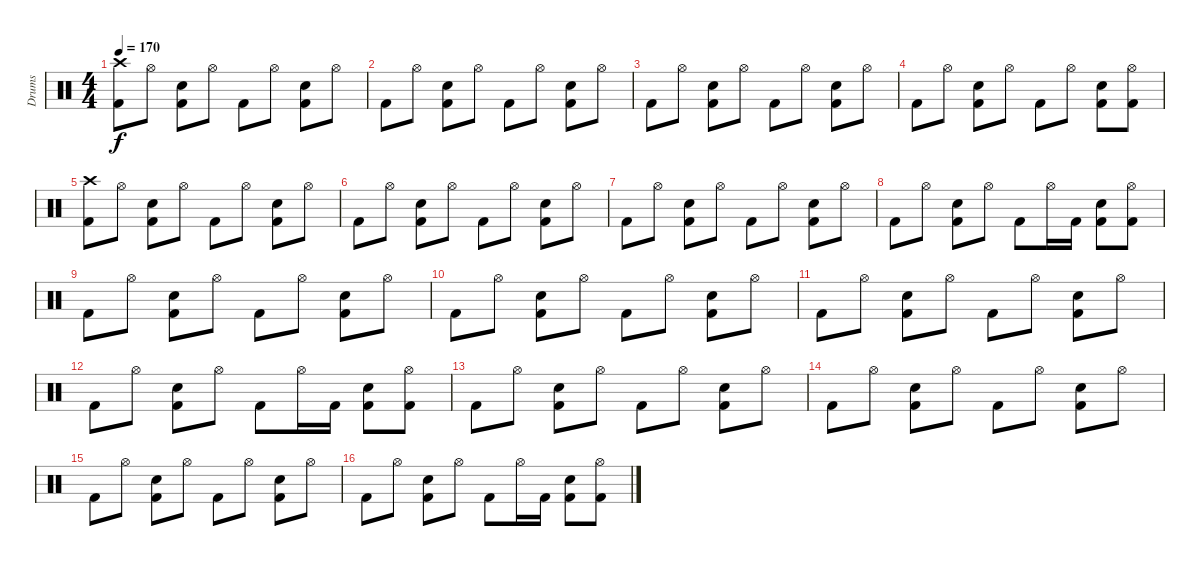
\track ("Drums" "Drums") {instrument percussion}
\staff {score}
\articulation defaults
\ts (4 4)
\tempo 170
\clef neutral
\ks c
("Crash high (hit)" "Kick (hit) 2").8{dy f} "Hi-Hat (open)".8 ("Snare (hit) 2" "Kick (hit) 2").8 "Hi-Hat (open)".8 "Kick (hit) 2".8 "Hi-Hat (open)".8 ("Snare (hit) 2" "Kick (hit) 2").8 "Hi-Hat (open)".8 |
"Kick (hit) 2".8 "Hi-Hat (open)".8 ("Snare (hit) 2" "Kick (hit) 2").8 "Hi-Hat (open)".8 "Kick (hit) 2".8 "Hi-Hat (open)".8 ("Snare (hit) 2" "Kick (hit) 2").8 "Hi-Hat (open)".8 |
"Kick (hit) 2".8 "Hi-Hat (open)".8 ("Snare (hit) 2" "Kick (hit) 2").8 "Hi-Hat (open)".8 "Kick (hit) 2".8 "Hi-Hat (open)".8 ("Snare (hit) 2" "Kick (hit) 2").8 "Hi-Hat (open)".8 |
"Kick (hit) 2".8 "Hi-Hat (open)".8 ("Snare (hit) 2" "Kick (hit) 2").8 "Hi-Hat (open)".8 "Kick (hit) 2".8 "Hi-Hat (open)".8 ("Snare (hit) 2" "Kick (hit) 2").8 ("Hi-Hat (open)" "Kick (hit) 2").8 |
("Crash high (hit)" "Kick (hit) 2").8 "Hi-Hat (open)".8 ("Snare (hit) 2" "Kick (hit) 2").8 "Hi-Hat (open)".8 "Kick (hit) 2".8 "Hi-Hat (open)".8 ("Snare (hit) 2" "Kick (hit) 2").8 "Hi-Hat (open)".8 |
"Kick (hit) 2".8 "Hi-Hat (open)".8 ("Snare (hit) 2" "Kick (hit) 2").8 "Hi-Hat (open)".8 "Kick (hit) 2".8 "Hi-Hat (open)".8 ("Snare (hit) 2" "Kick (hit) 2").8 "Hi-Hat (open)".8 |
"Kick (hit) 2".8 "Hi-Hat (open)".8 ("Snare (hit) 2" "Kick (hit) 2").8 "Hi-Hat (open)".8 "Kick (hit) 2".8 "Hi-Hat (open)".8 ("Snare (hit) 2" "Kick (hit) 2").8 "Hi-Hat (open)".8 |
"Kick (hit) 2".8 "Hi-Hat (open)".8 ("Snare (hit) 2" "Kick (hit) 2").8 "Hi-Hat (open)".8 "Kick (hit) 2".8 "Hi-Hat (open)".16 "Kick (hit) 2".16 ("Snare (hit) 2" "Kick (hit) 2").8 ("Hi-Hat (open)" "Kick (hit) 2").8 |
"Kick (hit) 2".8 "Hi-Hat (open)".8 ("Snare (hit) 2" "Kick (hit) 2").8 "Hi-Hat (open)".8 "Kick (hit) 2".8 "Hi-Hat (open)".8 ("Snare (hit) 2" "Kick (hit) 2").8 "Hi-Hat (open)".8 |
"Kick (hit) 2".8 "Hi-Hat (open)".8 ("Snare (hit) 2" "Kick (hit) 2").8 "Hi-Hat (open)".8 "Kick (hit) 2".8 "Hi-Hat (open)".8 ("Snare (hit) 2" "Kick (hit) 2").8 "Hi-Hat (open)".8 |
"Kick (hit) 2".8 "Hi-Hat (open)".8 ("Snare (hit) 2" "Kick (hit) 2").8 "Hi-Hat (open)".8 "Kick (hit) 2".8 "Hi-Hat (open)".8 ("Snare (hit) 2" "Kick (hit) 2").8 "Hi-Hat (open)".8 |
"Kick (hit) 2".8 "Hi-Hat (open)".8 ("Snare (hit) 2" "Kick (hit) 2").8 "Hi-Hat (open)".8 "Kick (hit) 2".8 "Hi-Hat (open)".16 "Kick (hit) 2".16 ("Snare (hit) 2" "Kick (hit) 2").8 ("Hi-Hat (open)" "Kick (hit) 2").8 |
"Kick (hit) 2".8 "Hi-Hat (open)".8 ("Snare (hit) 2" "Kick (hit) 2").8 "Hi-Hat (open)".8 "Kick (hit) 2".8 "Hi-Hat (open)".8 ("Snare (hit) 2" "Kick (hit) 2").8 "Hi-Hat (open)".8 |
"Kick (hit) 2".8 "Hi-Hat (open)".8 ("Snare (hit) 2" "Kick (hit) 2").8 "Hi-Hat (open)".8 "Kick (hit) 2".8 "Hi-Hat (open)".8 ("Snare (hit) 2" "Kick (hit) 2").8 "Hi-Hat (open)".8 |
"Kick (hit) 2".8 "Hi-Hat (open)".8 ("Snare (hit) 2" "Kick (hit) 2").8 "Hi-Hat (open)".8 "Kick (hit) 2".8 "Hi-Hat (open)".8 ("Snare (hit) 2" "Kick (hit) 2").8 "Hi-Hat (open)".8 |
"Kick (hit) 2".8 "Hi-Hat (open)".8 ("Snare (hit) 2" "Kick (hit) 2").8 "Hi-Hat (open)".8 "Kick (hit) 2".8 "Hi-Hat (open)".16 "Kick (hit) 2".16 ("Snare (hit) 2" "Kick (hit) 2").8 ("Hi-Hat (open)" "Kick (hit) 2").8
